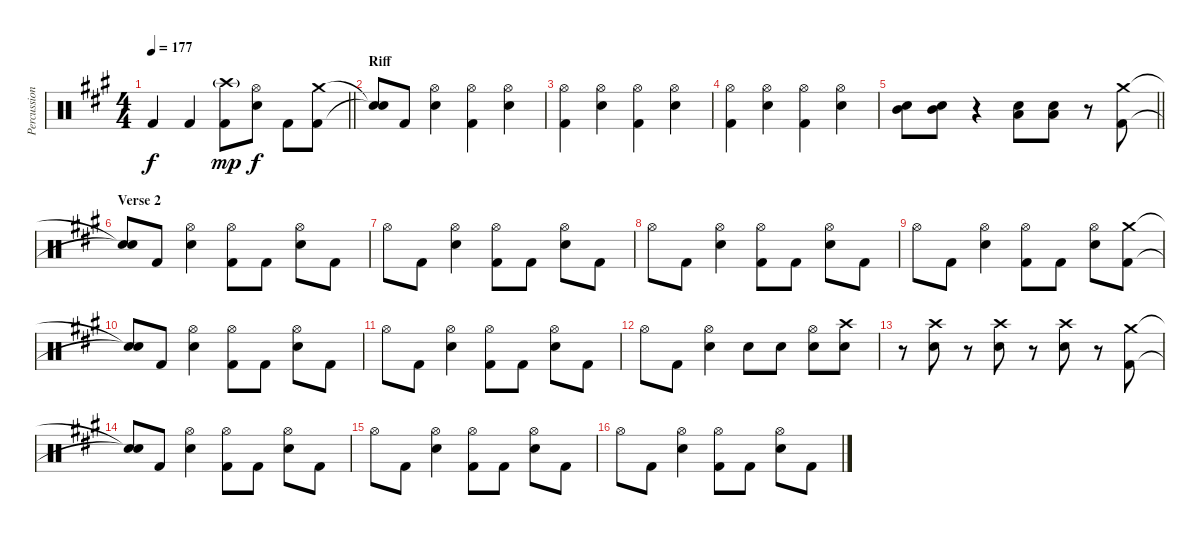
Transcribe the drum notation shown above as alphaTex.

\track ("Percussion" "Percussion") {instrument percussion}
\staff {score}
\articulation defaults
\ts (4 4)
\tempo 177
\clef neutral
\barLineRight lightlight
\ks a "Kick (hit) 2".4{dy f} "Kick (hit) 2".4
("Kick (hit) 2" "Crash high (hit)"{g}).8{dy mp} ("Hi-Hat (open)" "Snare (hit) 2").8{dy f} "Kick (hit) 2".8 ("Kick (hit) 2" "Crash medium (hit)").8 |
\section ("" "Riff")
("Snare (hit)"{t} "Snare (hit)"{t}).8 "Kick (hit) 2".8 ("Hi-Hat (open)" "Snare (hit) 2").4 ("Hi-Hat (open)" "Kick (hit) 2").4 ("Hi-Hat (open)" "Snare (hit) 2").4 |
("Hi-Hat (open)" "Kick (hit) 2").4 ("Hi-Hat (open)" "Snare (hit) 2").4 ("Hi-Hat (open)" "Kick (hit) 2").4 ("Hi-Hat (open)" "Snare (hit) 2").4 |
("Hi-Hat (open)" "Kick (hit) 2").4 ("Hi-Hat (open)" "Snare (hit) 2").4 ("Hi-Hat (open)" "Kick (hit) 2").4 ("Hi-Hat (open)" "Snare (hit) 2").4 |
\barLineRight lightlight
("Mid Tom (hit)" "Snare (hit) 2").8 ("Mid Tom (hit)" "Snare (hit) 2").8 r.4 ("Low Tom (hit)" "Snare (hit) 2").8 ("Low Tom (hit)" "Snare (hit) 2").8 r.8 ("Kick (hit) 2" "Crash medium (hit)").8 |
\section ("" "Verse 2")
("Snare (hit)"{t} "Snare (hit)"{t}).8 "Kick (hit) 2".8 ("Hi-Hat (open)" "Snare (hit) 2").4 ("Hi-Hat (open)" "Kick (hit) 2").8 "Kick (hit) 2".8 ("Hi-Hat (open)" "Snare (hit) 2").8 "Kick (hit) 2".8 |
"Hi-Hat (open)".8 "Kick (hit) 2".8 ("Hi-Hat (open)" "Snare (hit) 2").4 ("Hi-Hat (open)" "Kick (hit) 2").8 "Kick (hit) 2".8 ("Hi-Hat (open)" "Snare (hit) 2").8 "Kick (hit) 2".8 |
"Hi-Hat (open)".8 "Kick (hit) 2".8 ("Hi-Hat (open)" "Snare (hit) 2").4 ("Hi-Hat (open)" "Kick (hit) 2").8 "Kick (hit) 2".8 ("Hi-Hat (open)" "Snare (hit) 2").8 "Kick (hit) 2".8 |
"Hi-Hat (open)".8 "Kick (hit) 2".8 ("Hi-Hat (open)" "Snare (hit) 2").4 ("Hi-Hat (open)" "Kick (hit) 2").8 "Kick (hit) 2".8 ("Hi-Hat (open)" "Snare (hit) 2").8 ("Kick (hit) 2" "Crash medium (hit)").8 |
("Snare (hit)"{t} "Snare (hit)"{t}).8 "Kick (hit) 2".8 ("Hi-Hat (open)" "Snare (hit) 2").4 ("Hi-Hat (open)" "Kick (hit) 2").8 "Kick (hit) 2".8 ("Hi-Hat (open)" "Snare (hit) 2").8 "Kick (hit) 2".8 |
"Hi-Hat (open)".8 "Kick (hit) 2".8 ("Hi-Hat (open)" "Snare (hit) 2").4 ("Hi-Hat (open)" "Kick (hit) 2").8 "Kick (hit) 2".8 ("Hi-Hat (open)" "Snare (hit) 2").8 "Kick (hit) 2".8 |
"Hi-Hat (open)".8 "Kick (hit) 2".8 ("Hi-Hat (open)" "Snare (hit) 2").4 "Snare (hit) 2".8 "Snare (hit) 2".8 ("Hi-Hat (open)" "Snare (hit) 2").8 ("Snare (hit) 2" "Crash high (hit)").8 |
r.8{volume 0} ("Snare (hit) 2" "Crash high (hit)").8{volume 16} r.8{volume 0} ("Snare (hit) 2" "Crash high (hit)").8{volume 16} r.8{volume 0} ("Snare (hit) 2" "Crash high (hit)").8{volume 16} r.8{volume 0} ("Kick (hit) 2" "Crash medium (hit)").8{volume 16} |
("Snare (hit)"{t} "Snare (hit)"{t}).8 "Kick (hit) 2".8 ("Hi-Hat (open)" "Snare (hit) 2").4 ("Hi-Hat (open)" "Kick (hit) 2").8 "Kick (hit) 2".8 ("Hi-Hat (open)" "Snare (hit) 2").8 "Kick (hit) 2".8 |
"Hi-Hat (open)".8 "Kick (hit) 2".8 ("Hi-Hat (open)" "Snare (hit) 2").4 ("Hi-Hat (open)" "Kick (hit) 2").8 "Kick (hit) 2".8 ("Hi-Hat (open)" "Snare (hit) 2").8 "Kick (hit) 2".8 |
"Hi-Hat (open)".8 "Kick (hit) 2".8 ("Hi-Hat (open)" "Snare (hit) 2").4 ("Hi-Hat (open)" "Kick (hit) 2").8 "Kick (hit) 2".8 ("Hi-Hat (open)" "Snare (hit) 2").8 "Kick (hit) 2".8
